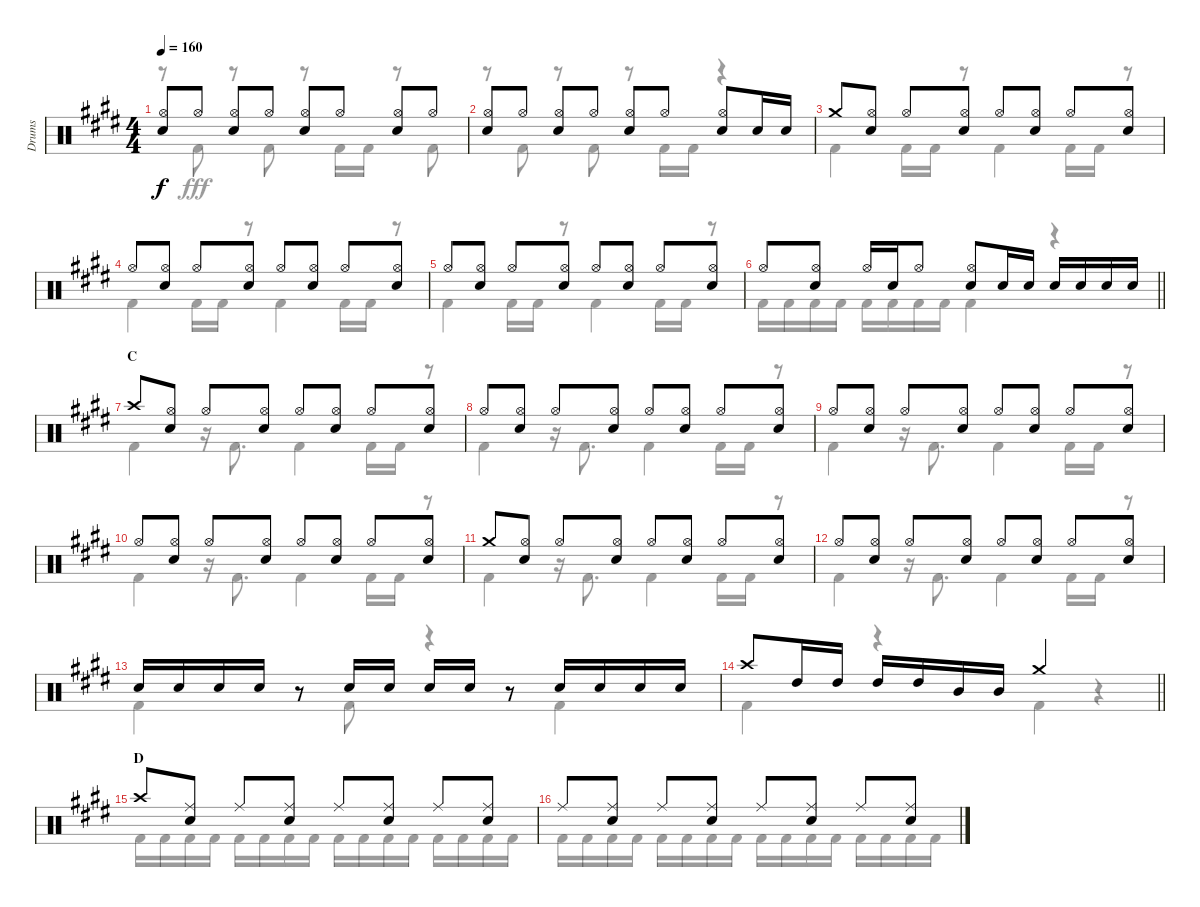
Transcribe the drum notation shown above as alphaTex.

\track ("Drums" "Drums") {instrument percussion}
\staff {score}
\articulation defaults
\voice
\ts (4 4)
\tempo 160
\clef neutral
\ks e
("Hi-Hat (open)" "Snare (hit) 2").8{dy f} "Hi-Hat (open)".8 ("Hi-Hat (open)" "Snare (hit) 2").8 "Hi-Hat (open)".8 ("Hi-Hat (open)" "Snare (hit) 2").8 "Hi-Hat (open)".8 ("Hi-Hat (open)" "Snare (hit) 2").8 "Hi-Hat (open)".8 |
("Hi-Hat (open)" "Snare (hit) 2").8 "Hi-Hat (open)".8 ("Hi-Hat (open)" "Snare (hit) 2").8 "Hi-Hat (open)".8 ("Hi-Hat (open)" "Snare (hit) 2").8 "Hi-Hat (open)".8 ("Hi-Hat (open)" "Snare (hit) 2").8 "Snare (hit) 2".16 "Snare (hit) 2".16 |
"Crash medium (hit)".8 ("Hi-Hat (open)" "Snare (hit) 2").8 "Hi-Hat (open)".8 ("Hi-Hat (open)" "Snare (hit) 2").8 "Hi-Hat (open)".8 ("Hi-Hat (open)" "Snare (hit) 2").8 "Hi-Hat (open)".8 ("Hi-Hat (open)" "Snare (hit) 2").8 |
"Hi-Hat (open)".8 ("Hi-Hat (open)" "Snare (hit) 2").8 "Hi-Hat (open)".8 ("Hi-Hat (open)" "Snare (hit) 2").8 "Hi-Hat (open)".8 ("Hi-Hat (open)" "Snare (hit) 2").8 "Hi-Hat (open)".8 ("Hi-Hat (open)" "Snare (hit) 2").8 |
"Hi-Hat (open)".8 ("Hi-Hat (open)" "Snare (hit) 2").8 "Hi-Hat (open)".8 ("Hi-Hat (open)" "Snare (hit) 2").8 "Hi-Hat (open)".8 ("Hi-Hat (open)" "Snare (hit) 2").8 "Hi-Hat (open)".8 ("Hi-Hat (open)" "Snare (hit) 2").8 |
\barLineRight lightlight "Hi-Hat (open)".8
("Hi-Hat (open)" "Snare (hit) 2").8 "Hi-Hat (open)".16 "Snare (hit) 2".16 "Hi-Hat (open)".8 ("Hi-Hat (open)" "Snare (hit) 2").8 "Snare (hit) 2".16 "Snare (hit) 2".16 "Snare (hit) 2".16 "Snare (hit) 2".16 "Snare (hit) 2".16 "Snare (hit) 2".16 |
\section ("" "C")
"Crash high (hit)".8 ("Hi-Hat (open)" "Snare (hit) 2").8 "Hi-Hat (open)".8 ("Hi-Hat (open)" "Snare (hit) 2").8 "Hi-Hat (open)".8 ("Hi-Hat (open)" "Snare (hit) 2").8 "Hi-Hat (open)".8 ("Hi-Hat (open)" "Snare (hit) 2").8 |
"Hi-Hat (open)".8 ("Hi-Hat (open)" "Snare (hit) 2").8 "Hi-Hat (open)".8 ("Hi-Hat (open)" "Snare (hit) 2").8 "Hi-Hat (open)".8 ("Hi-Hat (open)" "Snare (hit) 2").8 "Hi-Hat (open)".8 ("Hi-Hat (open)" "Snare (hit) 2").8 |
"Hi-Hat (open)".8 ("Hi-Hat (open)" "Snare (hit) 2").8 "Hi-Hat (open)".8 ("Hi-Hat (open)" "Snare (hit) 2").8 "Hi-Hat (open)".8 ("Hi-Hat (open)" "Snare (hit) 2").8 "Hi-Hat (open)".8 ("Hi-Hat (open)" "Snare (hit) 2").8 |
"Hi-Hat (open)".8 ("Hi-Hat (open)" "Snare (hit) 2").8 "Hi-Hat (open)".8 ("Hi-Hat (open)" "Snare (hit) 2").8 "Hi-Hat (open)".8 ("Hi-Hat (open)" "Snare (hit) 2").8 "Hi-Hat (open)".8 ("Hi-Hat (open)" "Snare (hit) 2").8 |
"Crash medium (hit)".8 ("Hi-Hat (open)" "Snare (hit) 2").8 "Hi-Hat (open)".8 ("Hi-Hat (open)" "Snare (hit) 2").8 "Hi-Hat (open)".8 ("Hi-Hat (open)" "Snare (hit) 2").8 "Hi-Hat (open)".8 ("Hi-Hat (open)" "Snare (hit) 2").8 |
"Hi-Hat (open)".8 ("Hi-Hat (open)" "Snare (hit) 2").8 "Hi-Hat (open)".8 ("Hi-Hat (open)" "Snare (hit) 2").8 "Hi-Hat (open)".8 ("Hi-Hat (open)" "Snare (hit) 2").8 "Hi-Hat (open)".8 ("Hi-Hat (open)" "Snare (hit) 2").8 |
"Snare (hit) 2".16 "Snare (hit) 2".16 "Snare (hit) 2".16 "Snare (hit) 2".16 r.8 "Snare (hit) 2".16 "Snare (hit) 2".16 "Snare (hit) 2".16 "Snare (hit) 2".16 r.8 "Snare (hit) 2".16 "Snare (hit) 2".16 "Snare (hit) 2".16 "Snare (hit) 2".16 |
\barLineRight lightlight "Crash high (hit)".8 "High Tom (hit)".16 "High Tom (hit)".16 "High Tom (hit)".16 "High Tom (hit)".16 "Mid Tom (hit)".16 "Mid Tom (hit)".16 "Crash medium (hit)".2
|
\section ("" "D")
"Crash high (hit)".8 ("Ride (middle)" "Snare (hit) 2").8 "Ride (middle)".8 ("Ride (middle)" "Snare (hit) 2").8 "Ride (middle)".8 ("Ride (middle)" "Snare (hit) 2").8 "Ride (middle)".8 ("Ride (middle)" "Snare (hit) 2").8 |
"Ride (middle)".8 ("Ride (middle)" "Snare (hit) 2").8 "Ride (middle)".8 ("Ride (middle)" "Snare (hit) 2").8 "Ride (middle)".8 ("Ride (middle)" "Snare (hit) 2").8 "Ride (middle)".8 ("Ride (middle)" "Snare (hit) 2").8
\voice
\clef neutral
\ottava regular
\simile none
\ks e
r.8{dy fff} "Kick (hit) 2".8 r.8 "Kick (hit) 2".8 r.8 "Kick (hit) 2".16 "Kick (hit) 2".16 r.8 "Kick (hit) 2".8 |
r.8 "Kick (hit) 2".8 r.8 "Kick (hit) 2".8 r.8 "Kick (hit) 2".16 "Kick (hit) 2".16 r.4 |
"Kick (hit) 2".4 "Kick (hit) 2".16 "Kick (hit) 2".16 r.8 "Kick (hit) 2".4 "Kick (hit) 2".16 "Kick (hit) 2".16 r.8 |
"Kick (hit) 2".4 "Kick (hit) 2".16 "Kick (hit) 2".16 r.8 "Kick (hit) 2".4 "Kick (hit) 2".16 "Kick (hit) 2".16 r.8 |
"Kick (hit) 2".4 "Kick (hit) 2".16 "Kick (hit) 2".16 r.8 "Kick (hit) 2".4 "Kick (hit) 2".16 "Kick (hit) 2".16 r.8 |
\barLineRight lightlight "Kick (hit) 2".16 "Kick (hit) 2".16 "Kick (hit) 2".16 "Kick (hit) 2".16 "Kick (hit) 2".16 "Kick (hit) 2".16 "Kick (hit) 2".16 "Kick (hit) 2".16 "Kick (hit) 2".4
r.4 |
"Kick (hit) 2".4 r.16 "Kick (hit) 2".8{d} "Kick (hit) 2".4 "Kick (hit) 2".16 "Kick (hit) 2".16 r.8 |
"Kick (hit) 2".4 r.16 "Kick (hit) 2".8{d} "Kick (hit) 2".4 "Kick (hit) 2".16 "Kick (hit) 2".16 r.8 |
"Kick (hit) 2".4 r.16 "Kick (hit) 2".8{d} "Kick (hit) 2".4 "Kick (hit) 2".16 "Kick (hit) 2".16 r.8 |
"Kick (hit) 2".4 r.16 "Kick (hit) 2".8{d} "Kick (hit) 2".4 "Kick (hit) 2".16 "Kick (hit) 2".16 r.8 |
"Kick (hit) 2".4 r.16 "Kick (hit) 2".8{d} "Kick (hit) 2".4 "Kick (hit) 2".16 "Kick (hit) 2".16 r.8 |
"Kick (hit) 2".4 r.16 "Kick (hit) 2".8{d} "Kick (hit) 2".4 "Kick (hit) 2".16 "Kick (hit) 2".16 r.8 |
"Kick (hit) 2".4 r.8 "Kick (hit) 2".8 r.4 "Kick (hit) 2".4 |
\barLineRight lightlight "Kick (hit) 2".4
r.4 "Kick (hit) 2".4 r.4 |
"Kick (hit) 2".16 "Kick (hit) 2".16 "Kick (hit) 2".16 "Kick (hit) 2".16 "Kick (hit) 2".16 "Kick (hit) 2".16 "Kick (hit) 2".16 "Kick (hit) 2".16 "Kick (hit) 2".16 "Kick (hit) 2".16 "Kick (hit) 2".16 "Kick (hit) 2".16 "Kick (hit) 2".16 "Kick (hit) 2".16 "Kick (hit) 2".16 "Kick (hit) 2".16 |
"Kick (hit) 2".16 "Kick (hit) 2".16 "Kick (hit) 2".16 "Kick (hit) 2".16 "Kick (hit) 2".16 "Kick (hit) 2".16 "Kick (hit) 2".16 "Kick (hit) 2".16 "Kick (hit) 2".16 "Kick (hit) 2".16 "Kick (hit) 2".16 "Kick (hit) 2".16 "Kick (hit) 2".16 "Kick (hit) 2".16 "Kick (hit) 2".16 "Kick (hit) 2".16
